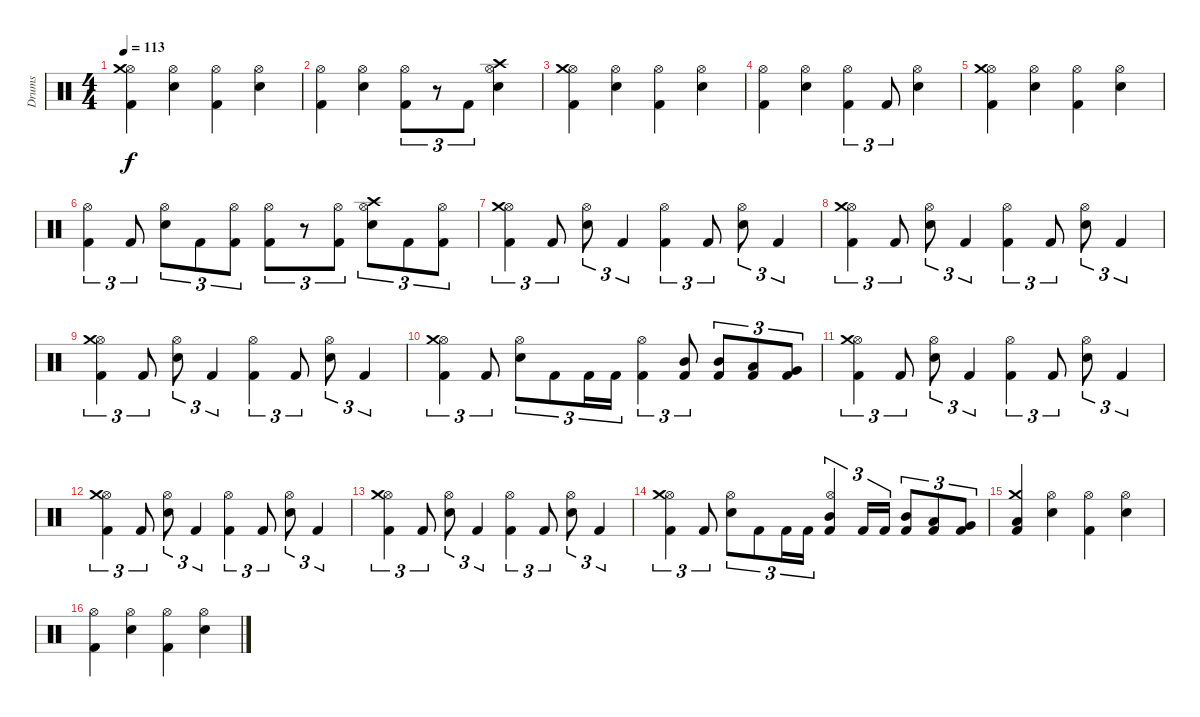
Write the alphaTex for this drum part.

\track ("Drums" "Drums") {instrument percussion}
\staff {score}
\articulation defaults
\ts (4 4)
\tempo 113
\clef neutral
\ks c
("Kick (hit) 2" "Hi-Hat (open)" "Crash medium (hit)").4{dy f} ("Snare (hit) 2" "Hi-Hat (open)").4 ("Kick (hit) 2" "Hi-Hat (open)").4 ("Snare (hit) 2" "Hi-Hat (open)").4 |
("Kick (hit) 2" "Hi-Hat (open)").4 ("Snare (hit) 2" "Hi-Hat (open)").4 ("Kick (hit) 2" "Hi-Hat (open)").8{tu (3 2)} r.8{tu (3 2)} "Kick (hit) 2".8{tu (3 2)} ("Snare (hit) 2" "Hi-Hat (open)" "Crash high (hit)").4 |
("Kick (hit) 2" "Hi-Hat (open)" "Crash medium (hit)").4 ("Snare (hit) 2" "Hi-Hat (open)").4 ("Kick (hit) 2" "Hi-Hat (open)").4 ("Snare (hit) 2" "Hi-Hat (open)").4 |
("Kick (hit) 2" "Hi-Hat (open)").4 ("Snare (hit) 2" "Hi-Hat (open)").4 ("Kick (hit) 2" "Hi-Hat (open)").4{tu (3 2)} "Kick (hit) 2".8{tu (3 2)} ("Snare (hit) 2" "Hi-Hat (open)").4 |
("Kick (hit) 2" "Hi-Hat (open)" "Crash medium (hit)").4 ("Snare (hit) 2" "Hi-Hat (open)").4 ("Kick (hit) 2" "Hi-Hat (open)").4 ("Snare (hit) 2" "Hi-Hat (open)").4 |
("Kick (hit) 2" "Hi-Hat (open)").4{tu (3 2)} "Kick (hit) 2".8{tu (3 2)} ("Snare (hit) 2" "Hi-Hat (open)").8{tu (3 2)} "Kick (hit) 2".8{tu (3 2)} ("Kick (hit) 2" "Hi-Hat (open)").8{tu (3 2)} ("Kick (hit) 2" "Hi-Hat (open)").8{tu (3 2)} r.8{tu (3 2)} ("Kick (hit) 2" "Hi-Hat (open)").8{tu (3 2)} ("Snare (hit) 2" "Hi-Hat (open)" "Crash high (hit)").8{tu (3 2)} "Kick (hit) 2".8{tu (3 2)} ("Kick (hit) 2" "Hi-Hat (open)").8{tu (3 2)} |
("Kick (hit) 2" "Hi-Hat (open)" "Crash medium (hit)").4{tu (3 2)} "Kick (hit) 2".8{tu (3 2)} ("Snare (hit) 2" "Hi-Hat (open)").8{tu (3 2)} "Kick (hit) 2".4{tu (3 2)} ("Kick (hit) 2" "Hi-Hat (open)").4{tu (3 2)} "Kick (hit) 2".8{tu (3 2)} ("Snare (hit) 2" "Hi-Hat (open)").8{tu (3 2)} "Kick (hit) 2".4{tu (3 2)} |
("Kick (hit) 2" "Hi-Hat (open)" "Crash medium (hit)").4{tu (3 2)} "Kick (hit) 2".8{tu (3 2)} ("Snare (hit) 2" "Hi-Hat (open)").8{tu (3 2)} "Kick (hit) 2".4{tu (3 2)} ("Kick (hit) 2" "Hi-Hat (open)").4{tu (3 2)} "Kick (hit) 2".8{tu (3 2)} ("Snare (hit) 2" "Hi-Hat (open)").8{tu (3 2)} "Kick (hit) 2".4{tu (3 2)} |
("Kick (hit) 2" "Hi-Hat (open)" "Crash medium (hit)").4{tu (3 2)} "Kick (hit) 2".8{tu (3 2)} ("Snare (hit) 2" "Hi-Hat (open)").8{tu (3 2)} "Kick (hit) 2".4{tu (3 2)} ("Kick (hit) 2" "Hi-Hat (open)").4{tu (3 2)} "Kick (hit) 2".8{tu (3 2)} ("Snare (hit) 2" "Hi-Hat (open)").8{tu (3 2)} "Kick (hit) 2".4{tu (3 2)} |
("Kick (hit) 2" "Hi-Hat (open)" "Crash medium (hit)").4{tu (3 2)} "Kick (hit) 2".8{tu (3 2)} ("Snare (hit) 2" "Hi-Hat (open)").8{tu (3 2)} "Kick (hit) 2".8{tu (3 2)} "Kick (hit) 2".16{tu (3 2)} "Kick (hit) 2".16{tu (3 2)} ("Kick (hit) 2" "Hi-Hat (open)").4{tu (3 2)} ("Kick (hit) 2" "Mid Tom (hit)").8{tu (3 2)} ("Kick (hit) 2" "Mid Tom (hit)").8{tu (3 2)} ("Kick (hit) 2" "Low Tom (hit)").8{tu (3 2)} ("Kick (hit) 2" "Very Low Tom (hit)").8{tu (3 2)} |
("Kick (hit) 2" "Hi-Hat (open)" "Crash medium (hit)").4{tu (3 2)} "Kick (hit) 2".8{tu (3 2)} ("Snare (hit) 2" "Hi-Hat (open)").8{tu (3 2)} "Kick (hit) 2".4{tu (3 2)} ("Kick (hit) 2" "Hi-Hat (open)").4{tu (3 2)} "Kick (hit) 2".8{tu (3 2)} ("Snare (hit) 2" "Hi-Hat (open)").8{tu (3 2)} "Kick (hit) 2".4{tu (3 2)} |
("Kick (hit) 2" "Hi-Hat (open)" "Crash medium (hit)").4{tu (3 2)} "Kick (hit) 2".8{tu (3 2)} ("Snare (hit) 2" "Hi-Hat (open)").8{tu (3 2)} "Kick (hit) 2".4{tu (3 2)} ("Kick (hit) 2" "Hi-Hat (open)").4{tu (3 2)} "Kick (hit) 2".8{tu (3 2)} ("Snare (hit) 2" "Hi-Hat (open)").8{tu (3 2)} "Kick (hit) 2".4{tu (3 2)} |
("Kick (hit) 2" "Hi-Hat (open)" "Crash medium (hit)").4{tu (3 2)} "Kick (hit) 2".8{tu (3 2)} ("Snare (hit) 2" "Hi-Hat (open)").8{tu (3 2)} "Kick (hit) 2".4{tu (3 2)} ("Kick (hit) 2" "Hi-Hat (open)").4{tu (3 2)} "Kick (hit) 2".8{tu (3 2)} ("Snare (hit) 2" "Hi-Hat (open)").8{tu (3 2)} "Kick (hit) 2".4{tu (3 2)} |
("Kick (hit) 2" "Hi-Hat (open)" "Crash medium (hit)").4{tu (3 2)} "Kick (hit) 2".8{tu (3 2)} ("Snare (hit) 2" "Hi-Hat (open)").8{tu (3 2)} "Kick (hit) 2".8{tu (3 2)} "Kick (hit) 2".16{tu (3 2)} "Kick (hit) 2".16{tu (3 2)} ("Kick (hit) 2" "Mid Tom (hit)" "Hi-Hat (open)").4{tu (3 2)} "Kick (hit) 2".16{tu (3 2)} "Kick (hit) 2".16{tu (3 2)} ("Kick (hit) 2" "Mid Tom (hit)").8{tu (3 2)} ("Kick (hit) 2" "Low Tom (hit)").8{tu (3 2)} ("Kick (hit) 2" "Very Low Tom (hit)").8{tu (3 2)} |
("Kick (hit) 2" "Low Floor Tom (hit)" "Crash medium (hit)").4 ("Snare (hit) 2" "Hi-Hat (open)").4 ("Kick (hit) 2" "Hi-Hat (open)").4 ("Snare (hit) 2" "Hi-Hat (open)").4 |
("Kick (hit) 2" "Hi-Hat (open)").4 ("Snare (hit) 2" "Hi-Hat (open)").4 ("Kick (hit) 2" "Hi-Hat (open)").4 ("Snare (hit) 2" "Hi-Hat (open)").4
